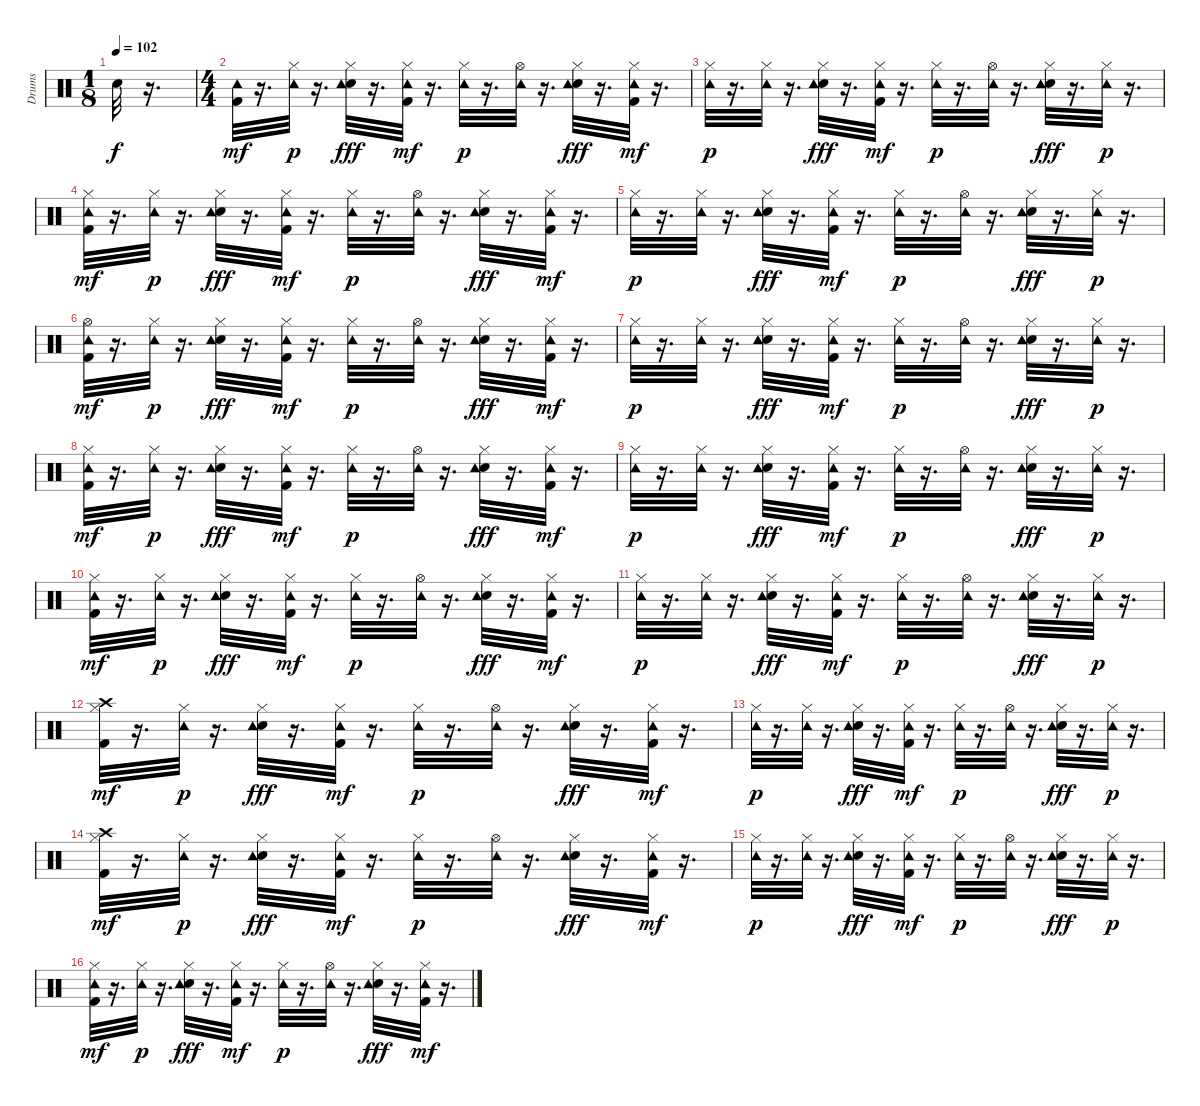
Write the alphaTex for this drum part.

\track ("Drums" "Drums") {instrument percussion}
\staff {score}
\articulation defaults
\ts (1 8)
\tempo 102
\clef neutral
\ks c "Electric Snare (hit)".32{dy f}
r.16{d} |
\ts (4 4)
("Tambourine (hit)" "Kick (hit) 2").32{dy mf} r.16{d} ("Hi-Hat (closed)" "Tambourine (hit)").32{dy p} r.16{d} ("Electric Snare (hit)" "Tambourine (hit)" "Hi-Hat (closed)").32{dy fff} r.16{d} ("Hi-Hat (closed)" "Tambourine (hit)" "Kick (hit) 2").32{dy mf} r.16{d} ("Hi-Hat (closed)" "Tambourine (hit)").32{dy p} r.16{d} ("Hi-Hat (open)" "Tambourine (hit)").32 r.16{d} ("Electric Snare (hit)" "Tambourine (hit)" "Hi-Hat (closed)").32{dy fff} r.16{d} ("Hi-Hat (closed)" "Tambourine (hit)" "Kick (hit) 2").32{dy mf} r.16{d} |
("Hi-Hat (closed)" "Tambourine (hit)").32{dy p} r.16{d} ("Hi-Hat (closed)" "Tambourine (hit)").32 r.16{d} ("Electric Snare (hit)" "Tambourine (hit)" "Hi-Hat (closed)").32{dy fff} r.16{d} ("Hi-Hat (closed)" "Tambourine (hit)" "Kick (hit) 2").32{dy mf} r.16{d} ("Hi-Hat (closed)" "Tambourine (hit)").32{dy p} r.16{d} ("Hi-Hat (open)" "Tambourine (hit)").32 r.16{d} ("Electric Snare (hit)" "Tambourine (hit)" "Hi-Hat (closed)").32{dy fff} r.16{d} ("Hi-Hat (closed)" "Tambourine (hit)").32{dy p} r.16{d} |
("Hi-Hat (closed)" "Tambourine (hit)" "Kick (hit) 2").32{dy mf} r.16{d} ("Hi-Hat (closed)" "Tambourine (hit)").32{dy p} r.16{d} ("Electric Snare (hit)" "Tambourine (hit)" "Hi-Hat (closed)").32{dy fff} r.16{d} ("Hi-Hat (closed)" "Tambourine (hit)" "Kick (hit) 2").32{dy mf} r.16{d} ("Hi-Hat (closed)" "Tambourine (hit)").32{dy p} r.16{d} ("Hi-Hat (open)" "Tambourine (hit)").32 r.16{d} ("Electric Snare (hit)" "Tambourine (hit)" "Hi-Hat (closed)").32{dy fff} r.16{d} ("Hi-Hat (closed)" "Tambourine (hit)" "Kick (hit) 2").32{dy mf} r.16{d} |
("Hi-Hat (closed)" "Tambourine (hit)").32{dy p} r.16{d} ("Hi-Hat (closed)" "Tambourine (hit)").32 r.16{d} ("Electric Snare (hit)" "Tambourine (hit)" "Hi-Hat (closed)").32{dy fff} r.16{d} ("Hi-Hat (closed)" "Tambourine (hit)" "Kick (hit) 2").32{dy mf} r.16{d} ("Hi-Hat (closed)" "Tambourine (hit)").32{dy p} r.16{d} ("Hi-Hat (open)" "Tambourine (hit)").32 r.16{d} ("Electric Snare (hit)" "Tambourine (hit)" "Hi-Hat (closed)").32{dy fff} r.16{d} ("Hi-Hat (closed)" "Tambourine (hit)").32{dy p} r.16{d} |
("Hi-Hat (open)" "Tambourine (hit)" "Kick (hit) 2").32{dy mf} r.16{d} ("Hi-Hat (closed)" "Tambourine (hit)").32{dy p} r.16{d} ("Electric Snare (hit)" "Tambourine (hit)" "Hi-Hat (closed)").32{dy fff} r.16{d} ("Hi-Hat (closed)" "Tambourine (hit)" "Kick (hit) 2").32{dy mf} r.16{d} ("Hi-Hat (closed)" "Tambourine (hit)").32{dy p} r.16{d} ("Hi-Hat (open)" "Tambourine (hit)").32 r.16{d} ("Electric Snare (hit)" "Tambourine (hit)" "Hi-Hat (closed)").32{dy fff} r.16{d} ("Hi-Hat (closed)" "Tambourine (hit)" "Kick (hit) 2").32{dy mf} r.16{d} |
("Hi-Hat (closed)" "Tambourine (hit)").32{dy p} r.16{d} ("Hi-Hat (closed)" "Tambourine (hit)").32 r.16{d} ("Electric Snare (hit)" "Tambourine (hit)" "Hi-Hat (closed)").32{dy fff} r.16{d} ("Hi-Hat (closed)" "Tambourine (hit)" "Kick (hit) 2").32{dy mf} r.16{d} ("Hi-Hat (closed)" "Tambourine (hit)").32{dy p} r.16{d} ("Hi-Hat (open)" "Tambourine (hit)").32 r.16{d} ("Electric Snare (hit)" "Tambourine (hit)" "Hi-Hat (closed)").32{dy fff} r.16{d} ("Hi-Hat (closed)" "Tambourine (hit)").32{dy p} r.16{d} |
("Hi-Hat (closed)" "Tambourine (hit)" "Kick (hit) 2").32{dy mf} r.16{d} ("Hi-Hat (closed)" "Tambourine (hit)").32{dy p} r.16{d} ("Electric Snare (hit)" "Tambourine (hit)" "Hi-Hat (closed)").32{dy fff} r.16{d} ("Hi-Hat (closed)" "Tambourine (hit)" "Kick (hit) 2").32{dy mf} r.16{d} ("Hi-Hat (closed)" "Tambourine (hit)").32{dy p} r.16{d} ("Hi-Hat (open)" "Tambourine (hit)").32 r.16{d} ("Electric Snare (hit)" "Tambourine (hit)" "Hi-Hat (closed)").32{dy fff} r.16{d} ("Hi-Hat (closed)" "Tambourine (hit)" "Kick (hit) 2").32{dy mf} r.16{d} |
("Hi-Hat (closed)" "Tambourine (hit)").32{dy p} r.16{d} ("Hi-Hat (closed)" "Tambourine (hit)").32 r.16{d} ("Electric Snare (hit)" "Tambourine (hit)" "Hi-Hat (closed)").32{dy fff} r.16{d} ("Hi-Hat (closed)" "Tambourine (hit)" "Kick (hit) 2").32{dy mf} r.16{d} ("Hi-Hat (closed)" "Tambourine (hit)").32{dy p} r.16{d} ("Hi-Hat (open)" "Tambourine (hit)").32 r.16{d} ("Electric Snare (hit)" "Tambourine (hit)" "Hi-Hat (closed)").32{dy fff} r.16{d} ("Hi-Hat (closed)" "Tambourine (hit)").32{dy p} r.16{d} |
("Hi-Hat (closed)" "Tambourine (hit)" "Kick (hit) 2").32{dy mf} r.16{d} ("Hi-Hat (closed)" "Tambourine (hit)").32{dy p} r.16{d} ("Electric Snare (hit)" "Tambourine (hit)" "Hi-Hat (closed)").32{dy fff} r.16{d} ("Hi-Hat (closed)" "Tambourine (hit)" "Kick (hit) 2").32{dy mf} r.16{d} ("Hi-Hat (closed)" "Tambourine (hit)").32{dy p} r.16{d} ("Hi-Hat (open)" "Tambourine (hit)").32 r.16{d} ("Electric Snare (hit)" "Tambourine (hit)" "Hi-Hat (closed)").32{dy fff} r.16{d} ("Hi-Hat (closed)" "Tambourine (hit)" "Kick (hit) 2").32{dy mf} r.16{d} |
("Hi-Hat (closed)" "Tambourine (hit)").32{dy p} r.16{d} ("Hi-Hat (closed)" "Tambourine (hit)").32 r.16{d} ("Electric Snare (hit)" "Tambourine (hit)" "Hi-Hat (closed)").32{dy fff} r.16{d} ("Hi-Hat (closed)" "Tambourine (hit)" "Kick (hit) 2").32{dy mf} r.16{d} ("Hi-Hat (closed)" "Tambourine (hit)").32{dy p} r.16{d} ("Hi-Hat (open)" "Tambourine (hit)").32 r.16{d} ("Electric Snare (hit)" "Tambourine (hit)" "Hi-Hat (closed)").32{dy fff} r.16{d} ("Hi-Hat (closed)" "Tambourine (hit)").32{dy p} r.16{d} |
("Hi-Hat (closed)" "Crash high (hit)" "Kick (hit) 2").32{dy mf} r.16{d} ("Hi-Hat (closed)" "Tambourine (hit)").32{dy p} r.16{d} ("Electric Snare (hit)" "Tambourine (hit)" "Hi-Hat (closed)").32{dy fff} r.16{d} ("Hi-Hat (closed)" "Tambourine (hit)" "Kick (hit) 2").32{dy mf} r.16{d} ("Hi-Hat (closed)" "Tambourine (hit)").32{dy p} r.16{d} ("Hi-Hat (open)" "Tambourine (hit)").32 r.16{d} ("Electric Snare (hit)" "Tambourine (hit)" "Hi-Hat (closed)").32{dy fff} r.16{d} ("Hi-Hat (closed)" "Tambourine (hit)" "Kick (hit) 2").32{dy mf} r.16{d} |
("Hi-Hat (closed)" "Tambourine (hit)").32{dy p} r.16{d} ("Hi-Hat (closed)" "Tambourine (hit)").32 r.16{d} ("Electric Snare (hit)" "Tambourine (hit)" "Hi-Hat (closed)").32{dy fff} r.16{d} ("Hi-Hat (closed)" "Tambourine (hit)" "Kick (hit) 2").32{dy mf} r.16{d} ("Hi-Hat (closed)" "Tambourine (hit)").32{dy p} r.16{d} ("Hi-Hat (open)" "Tambourine (hit)").32 r.16{d} ("Electric Snare (hit)" "Tambourine (hit)" "Hi-Hat (closed)").32{dy fff} r.16{d} ("Hi-Hat (closed)" "Tambourine (hit)").32{dy p} r.16{d} |
("Hi-Hat (closed)" "Crash high (hit)" "Kick (hit) 2").32{dy mf} r.16{d} ("Hi-Hat (closed)" "Tambourine (hit)").32{dy p} r.16{d} ("Electric Snare (hit)" "Tambourine (hit)" "Hi-Hat (closed)").32{dy fff} r.16{d} ("Hi-Hat (closed)" "Tambourine (hit)" "Kick (hit) 2").32{dy mf} r.16{d} ("Hi-Hat (closed)" "Tambourine (hit)").32{dy p} r.16{d} ("Hi-Hat (open)" "Tambourine (hit)").32 r.16{d} ("Electric Snare (hit)" "Tambourine (hit)" "Hi-Hat (closed)").32{dy fff} r.16{d} ("Hi-Hat (closed)" "Tambourine (hit)" "Kick (hit) 2").32{dy mf} r.16{d} |
("Hi-Hat (closed)" "Tambourine (hit)").32{dy p} r.16{d} ("Hi-Hat (closed)" "Tambourine (hit)").32 r.16{d} ("Electric Snare (hit)" "Tambourine (hit)" "Hi-Hat (closed)").32{dy fff} r.16{d} ("Hi-Hat (closed)" "Tambourine (hit)" "Kick (hit) 2").32{dy mf} r.16{d} ("Hi-Hat (closed)" "Tambourine (hit)").32{dy p} r.16{d} ("Hi-Hat (open)" "Tambourine (hit)").32 r.16{d} ("Electric Snare (hit)" "Tambourine (hit)" "Hi-Hat (closed)").32{dy fff} r.16{d} ("Hi-Hat (closed)" "Tambourine (hit)").32{dy p} r.16{d} |
("Hi-Hat (closed)" "Tambourine (hit)" "Kick (hit) 2").32{dy mf} r.16{d} ("Hi-Hat (closed)" "Tambourine (hit)").32{dy p} r.16{d} ("Electric Snare (hit)" "Tambourine (hit)" "Hi-Hat (closed)").32{dy fff} r.16{d} ("Hi-Hat (closed)" "Tambourine (hit)" "Kick (hit) 2").32{dy mf} r.16{d} ("Hi-Hat (closed)" "Tambourine (hit)").32{dy p} r.16{d} ("Hi-Hat (open)" "Tambourine (hit)").32 r.16{d} ("Electric Snare (hit)" "Tambourine (hit)" "Hi-Hat (closed)").32{dy fff} r.16{d} ("Hi-Hat (closed)" "Tambourine (hit)" "Kick (hit) 2").32{dy mf} r.16{d}
